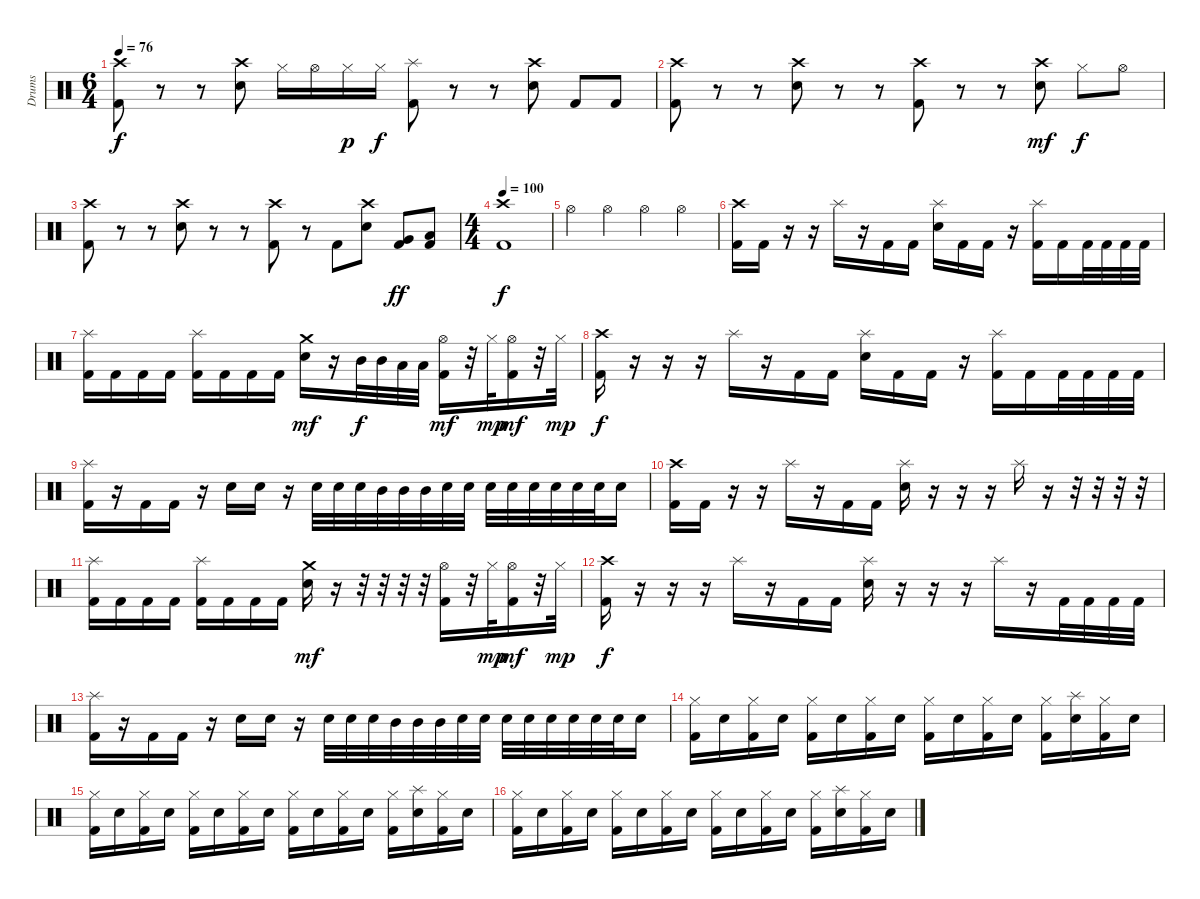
\track ("Drums" "Drums") {instrument percussion}
\staff {score}
\articulation defaults
\ts (6 4)
\tempo 76
\clef neutral
\ks c
("Kick (hit) 2" "Crash high (hit)").8{dy f} r.8 r.8 ("Electric Snare (hit)" "Crash high (hit)").8 "Hi-Hat (closed)".16 "Hi-Hat (open)".16 "Hi-Hat (closed)".16{dy p} "Hi-Hat (closed)".16{dy f} ("Kick (hit) 2" "Splash (hit)").8 r.8 r.8 ("Electric Snare (hit)" "Crash high (hit)").8 "Kick (hit) 2".8 "Kick (hit) 2".8 |
("Kick (hit) 2" "Crash high (hit)").8 r.8 r.8 ("Electric Snare (hit)" "Crash high (hit)").8 r.8 r.8 ("Kick (hit) 2" "Crash high (hit)").8 r.8 r.8 ("Electric Snare (hit)" "Crash high (hit)").8{dy mf} "Hi-Hat (closed)".8{dy f} "Hi-Hat (open)".8 |
("Kick (hit) 2" "Crash high (hit)").8 r.8 r.8 ("Electric Snare (hit)" "Crash high (hit)").8 r.8 r.8 ("Kick (hit) 2" "Crash high (hit)").8 r.8 "Kick (hit) 2".8 ("Electric Snare (hit)" "Crash high (hit)").8 ("Kick (hit) 2" "Very Low Tom (hit)").8{dy ff} ("Kick (hit) 2" "Low Tom (hit)").8 |
\ts (4 4)
\tempo 100
("Kick (hit) 2" "Crash high (hit)").1{dy f} |
"Hi-Hat (open)".4 "Hi-Hat (open)".4 "Hi-Hat (open)".4 "Hi-Hat (open)".4 |
("Kick (hit) 2" "Crash high (hit)").16 "Kick (hit) 2".16 r.16 r.16 "Splash (hit)".16 r.16 "Kick (hit) 2".16 "Kick (hit) 2".16 ("Electric Snare (hit)" "Splash (hit)").16 "Kick (hit) 2".16 "Kick (hit) 2".16 r.16 ("Kick (hit) 2" "Splash (hit)").16 "Kick (hit) 2".16 "Kick (hit) 2".32 "Kick (hit) 2".32 "Kick (hit) 2".32 "Kick (hit) 2".32 |
("Kick (hit) 2" "Splash (hit)").16 "Kick (hit) 2".16 "Kick (hit) 2".16 "Kick (hit) 2".16 ("Kick (hit) 2" "Splash (hit)").16 "Kick (hit) 2".16 "Kick (hit) 2".16 "Kick (hit) 2".16 ("Electric Snare (hit)" "Crash medium (hit)").16{dy mf} r.16 "Mid Tom (hit)".32{dy f} "Mid Tom (hit)".32 "Low Tom (hit)".32 "Low Tom (hit)".32 ("Hi-Hat (open)" "Kick (hit) 2").16{dy mf} r.32 "Hi-Hat (closed)".32{dy mp} ("Hi-Hat (open)" "Kick (hit) 2").16{dy mf} r.32 "Hi-Hat (closed)".32{dy mp} |
("Kick (hit) 2" "Crash high (hit)").16{dy f} r.16 r.16 r.16 "Splash (hit)".16 r.16 "Kick (hit) 2".16 "Kick (hit) 2".16 ("Electric Snare (hit)" "Splash (hit)").16 "Kick (hit) 2".16 "Kick (hit) 2".16 r.16 ("Kick (hit) 2" "Splash (hit)").16 "Kick (hit) 2".16 "Kick (hit) 2".32 "Kick (hit) 2".32 "Kick (hit) 2".32 "Kick (hit) 2".32 |
("Kick (hit) 2" "Splash (hit)").16 r.16 "Kick (hit) 2".16 "Kick (hit) 2".16 r.16 "Electric Snare (hit)".16 "Electric Snare (hit)".16 r.16 "Electric Snare (hit)".32 "Electric Snare (hit)".32 "Electric Snare (hit)".32 "Mid Tom (hit)".32 "Mid Tom (hit)".32 "Mid Tom (hit)".32 "Electric Snare (hit)".32 "Electric Snare (hit)".32 "Electric Snare (hit)".32 "Electric Snare (hit)".32 "Electric Snare (hit)".32 "Electric Snare (hit)".32 "Electric Snare (hit)".32 "Electric Snare (hit)".32 "Electric Snare (hit)".16 |
("Kick (hit) 2" "Crash high (hit)").16 "Kick (hit) 2".16 r.16 r.16 "Splash (hit)".16 r.16 "Kick (hit) 2".16 "Kick (hit) 2".16 ("Electric Snare (hit)" "Splash (hit)").16 r.16 r.16 r.16 "Splash (hit)".16 r.16 r.32 r.32 r.32 r.32 |
("Kick (hit) 2" "Splash (hit)").16 "Kick (hit) 2".16 "Kick (hit) 2".16 "Kick (hit) 2".16 ("Kick (hit) 2" "Splash (hit)").16 "Kick (hit) 2".16 "Kick (hit) 2".16 "Kick (hit) 2".16 ("Electric Snare (hit)" "Crash medium (hit)").16{dy mf} r.16 r.32 r.32 r.32 r.32 ("Hi-Hat (open)" "Kick (hit) 2").16 r.32 "Hi-Hat (closed)".32{dy mp} ("Hi-Hat (open)" "Kick (hit) 2").16{dy mf} r.32 "Hi-Hat (closed)".32{dy mp} |
("Kick (hit) 2" "Crash high (hit)").16{dy f} r.16 r.16 r.16 "Splash (hit)".16 r.16 "Kick (hit) 2".16 "Kick (hit) 2".16 ("Electric Snare (hit)" "Splash (hit)").16 r.16 r.16 r.16 "Splash (hit)".16 r.16 "Kick (hit) 2".32 "Kick (hit) 2".32 "Kick (hit) 2".32 "Kick (hit) 2".32 |
("Kick (hit) 2" "Splash (hit)").16 r.16 "Kick (hit) 2".16 "Kick (hit) 2".16 r.16 "Electric Snare (hit)".16 "Electric Snare (hit)".16 r.16 "Electric Snare (hit)".32 "Electric Snare (hit)".32 "Electric Snare (hit)".32 "Mid Tom (hit)".32 "Mid Tom (hit)".32 "Mid Tom (hit)".32 "Electric Snare (hit)".32 "Electric Snare (hit)".32 "Electric Snare (hit)".32 "Electric Snare (hit)".32 "Electric Snare (hit)".32 "Electric Snare (hit)".32 "Electric Snare (hit)".32 "Electric Snare (hit)".32 "Electric Snare (hit)".16 |
("Kick (hit) 2" "Hi-Hat (closed)").16 "Electric Snare (hit)".16 ("Kick (hit) 2" "Hi-Hat (closed)").16 "Electric Snare (hit)".16 ("Kick (hit) 2" "Hi-Hat (closed)").16 "Electric Snare (hit)".16 ("Kick (hit) 2" "Hi-Hat (closed)").16 "Electric Snare (hit)".16 ("Kick (hit) 2" "Hi-Hat (closed)").16 "Electric Snare (hit)".16 ("Kick (hit) 2" "Hi-Hat (closed)").16 "Electric Snare (hit)".16 ("Kick (hit) 2" "Hi-Hat (closed)").16 ("Electric Snare (hit)" "Splash (hit)").16 ("Kick (hit) 2" "Hi-Hat (closed)").16 "Electric Snare (hit)".16 |
("Kick (hit) 2" "Hi-Hat (closed)").16 "Electric Snare (hit)".16 ("Kick (hit) 2" "Hi-Hat (closed)").16 "Electric Snare (hit)".16 ("Kick (hit) 2" "Hi-Hat (closed)").16 "Electric Snare (hit)".16 ("Kick (hit) 2" "Hi-Hat (closed)").16 "Electric Snare (hit)".16 ("Kick (hit) 2" "Hi-Hat (closed)").16 "Electric Snare (hit)".16 ("Kick (hit) 2" "Hi-Hat (closed)").16 "Electric Snare (hit)".16 ("Kick (hit) 2" "Hi-Hat (closed)").16 ("Electric Snare (hit)" "Splash (hit)").16 ("Kick (hit) 2" "Hi-Hat (closed)").16 "Electric Snare (hit)".16 |
("Kick (hit) 2" "Hi-Hat (closed)").16 "Electric Snare (hit)".16 ("Kick (hit) 2" "Hi-Hat (closed)").16 "Electric Snare (hit)".16 ("Kick (hit) 2" "Hi-Hat (closed)").16 "Electric Snare (hit)".16 ("Kick (hit) 2" "Hi-Hat (closed)").16 "Electric Snare (hit)".16 ("Kick (hit) 2" "Hi-Hat (closed)").16 "Electric Snare (hit)".16 ("Kick (hit) 2" "Hi-Hat (closed)").16 "Electric Snare (hit)".16 ("Kick (hit) 2" "Hi-Hat (closed)").16 ("Electric Snare (hit)" "Splash (hit)").16 ("Kick (hit) 2" "Hi-Hat (closed)").16 "Electric Snare (hit)".16
